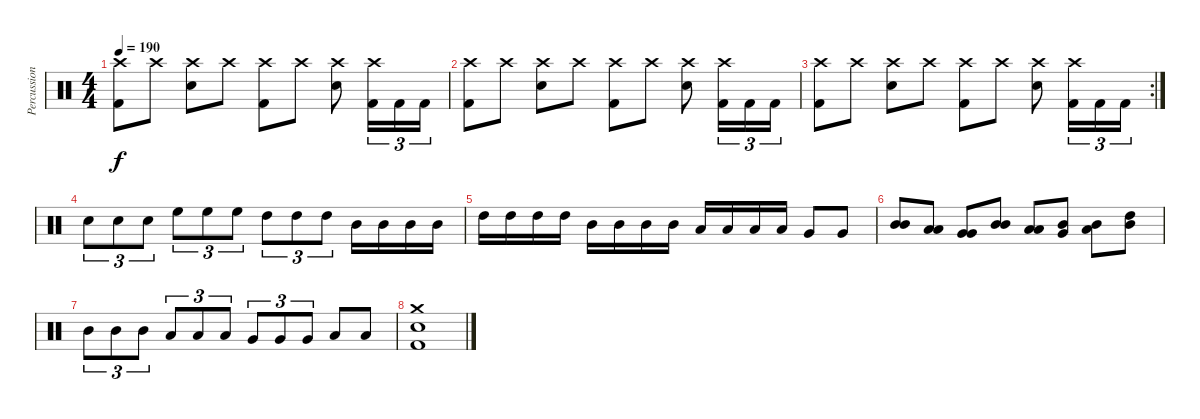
\track ("Percussions" "Percussion") {instrument percussion}
\staff {score}
\articulation defaults
\ts (4 4)
\tempo 190
\clef neutral
\ks c
("Crash high (hit)" "Kick (hit) 2").8{dy f} "Crash high (hit)".8 ("Crash high (hit)" "Electric Snare (hit)").8 "Crash high (hit)".8 ("Crash high (hit)" "Kick (hit) 2").8 "Crash high (hit)".8 ("Crash high (hit)" "Electric Snare (hit)").8 ("Crash high (hit)" "Kick (hit) 2").16{tu (3 2)} "Kick (hit) 2".16{tu (3 2)} "Kick (hit) 2".16{tu (3 2)} |
("Crash high (hit)" "Kick (hit) 2").8 "Crash high (hit)".8 ("Crash high (hit)" "Electric Snare (hit)").8 "Crash high (hit)".8 ("Crash high (hit)" "Kick (hit) 2").8 "Crash high (hit)".8 ("Crash high (hit)" "Electric Snare (hit)").8 ("Crash high (hit)" "Kick (hit) 2").16{tu (3 2)} "Kick (hit) 2".16{tu (3 2)} "Kick (hit) 2".16{tu (3 2)} |
\rc 2
("Crash high (hit)" "Kick (hit) 2").8 "Crash high (hit)".8 ("Crash high (hit)" "Electric Snare (hit)").8 "Crash high (hit)".8 ("Crash high (hit)" "Kick (hit) 2").8 "Crash high (hit)".8 ("Crash high (hit)" "Electric Snare (hit)").8 ("Crash high (hit)" "Kick (hit) 2").16{tu (3 2)} "Kick (hit) 2".16{tu (3 2)} "Kick (hit) 2".16{tu (3 2)} |
"Electric Snare (hit)".8{tu (3 2)} "Electric Snare (hit)".8{tu (3 2)} "Electric Snare (hit)".8{tu (3 2)} "High Floor Tom (hit)".8{tu (3 2)} "High Floor Tom (hit)".8{tu (3 2)} "High Floor Tom (hit)".8{tu (3 2)} "High Tom (hit)".8{tu (3 2)} "High Tom (hit)".8{tu (3 2)} "High Tom (hit)".8{tu (3 2)} "Mid Tom (hit)".16 "Mid Tom (hit)".16 "Mid Tom (hit)".16 "Mid Tom (hit)".16 |
"High Tom (hit)".16 "High Tom (hit)".16 "High Tom (hit)".16 "High Tom (hit)".16 "Mid Tom (hit)".16 "Mid Tom (hit)".16 "Mid Tom (hit)".16 "Mid Tom (hit)".16 "Low Tom (hit)".16 "Low Tom (hit)".16 "Low Tom (hit)".16 "Low Tom (hit)".16 "Very Low Tom (hit)".8 "Very Low Tom (hit)".8 |
("Mid Tom (hit)" "Mid Tom (hit)").8 ("Low Tom (hit)" "Low Tom (hit)").8 ("Very Low Tom (hit)" "Very Low Tom (hit)").8 ("Mid Tom (hit)" "Mid Tom (hit)").8 ("Low Tom (hit)" "Low Tom (hit)").8 ("Mid Tom (hit)" "Very Low Tom (hit)").8 ("Mid Tom (hit)" "Low Tom (hit)").8 ("Mid Tom (hit)" "High Tom (hit)").8 |
"Mid Tom (hit)".8{tu (3 2)} "Mid Tom (hit)".8{tu (3 2)} "Mid Tom (hit)".8{tu (3 2)} "Low Tom (hit)".8{tu (3 2)} "Low Tom (hit)".8{tu (3 2)} "Low Tom (hit)".8{tu (3 2)} "Very Low Tom (hit)".8{tu (3 2)} "Very Low Tom (hit)".8{tu (3 2)} "Very Low Tom (hit)".8{tu (3 2)} "Low Floor Tom (hit)".8 "Low Floor Tom (hit)".8 |
("Crash medium (hit)" "Electric Snare (hit)" "Kick (hit) 2").1
